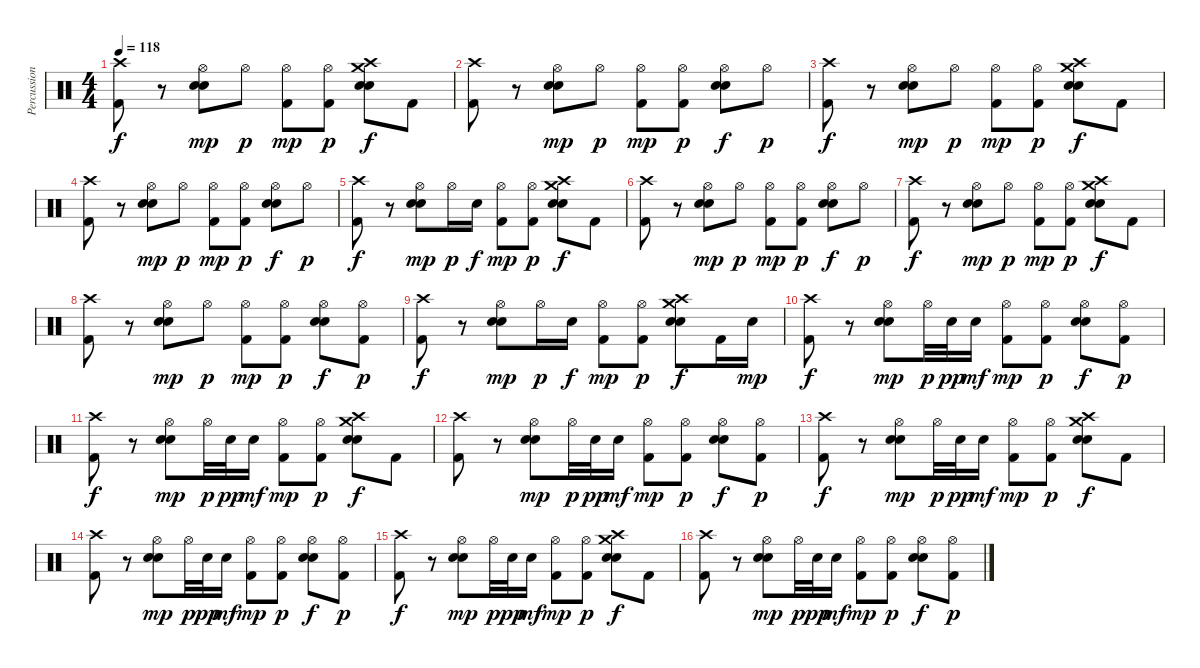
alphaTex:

\track ("Percussion" "Percussion") {instrument percussion}
\staff
\articulation defaults
\ts (4 4)
\tempo 118
\clef neutral
\ks c
("Crash high (hit)" "Kick (hit) 2").8{dy f} r.8 ("Hi-Hat (open)" "Electric Snare (hit)" "Snare (hit) 2").8{dy mp} "Hi-Hat (open)".8{dy p} ("Hi-Hat (open)" "Kick (hit) 2").8{dy mp} ("Hi-Hat (open)" "Kick (hit) 2").8{dy p} ("Crash medium (hit)" "Crash high (hit)" "Electric Snare (hit)" "Snare (hit) 2").8{dy f} "Kick (hit) 2".8 |
("Crash high (hit)" "Kick (hit) 2").8 r.8 ("Hi-Hat (open)" "Electric Snare (hit)" "Snare (hit) 2").8{dy mp} "Hi-Hat (open)".8{dy p} ("Hi-Hat (open)" "Kick (hit) 2").8{dy mp} ("Hi-Hat (open)" "Kick (hit) 2").8{dy p} ("Hi-Hat (open)" "Electric Snare (hit)" "Snare (hit) 2").8{dy f} "Hi-Hat (open)".8{dy p} |
("Crash high (hit)" "Kick (hit) 2").8{dy f} r.8 ("Hi-Hat (open)" "Electric Snare (hit)" "Snare (hit) 2").8{dy mp} "Hi-Hat (open)".8{dy p} ("Hi-Hat (open)" "Kick (hit) 2").8{dy mp} ("Hi-Hat (open)" "Kick (hit) 2").8{dy p} ("Crash medium (hit)" "Crash high (hit)" "Electric Snare (hit)" "Snare (hit) 2").8{dy f} "Kick (hit) 2".8 |
("Crash high (hit)" "Kick (hit) 2").8 r.8 ("Hi-Hat (open)" "Electric Snare (hit)" "Snare (hit) 2").8{dy mp} "Hi-Hat (open)".8{dy p} ("Hi-Hat (open)" "Kick (hit) 2").8{dy mp} ("Hi-Hat (open)" "Kick (hit) 2").8{dy p} ("Hi-Hat (open)" "Electric Snare (hit)" "Snare (hit) 2").8{dy f} "Hi-Hat (open)".8{dy p} |
("Crash high (hit)" "Kick (hit) 2").8{dy f} r.8 ("Hi-Hat (open)" "Electric Snare (hit)" "Snare (hit) 2").8{dy mp} "Hi-Hat (open)".16{dy p} "Electric Snare (hit)".16{dy f} ("Hi-Hat (open)" "Kick (hit) 2").8{dy mp} ("Hi-Hat (open)" "Kick (hit) 2").8{dy p} ("Crash medium (hit)" "Crash high (hit)" "Electric Snare (hit)" "Snare (hit) 2").8{dy f} "Kick (hit) 2".8 |
("Crash high (hit)" "Kick (hit) 2").8 r.8 ("Hi-Hat (open)" "Electric Snare (hit)" "Snare (hit) 2").8{dy mp} "Hi-Hat (open)".8{dy p} ("Hi-Hat (open)" "Kick (hit) 2").8{dy mp} ("Hi-Hat (open)" "Kick (hit) 2").8{dy p} ("Hi-Hat (open)" "Electric Snare (hit)" "Snare (hit) 2").8{dy f} "Hi-Hat (open)".8{dy p} |
("Crash high (hit)" "Kick (hit) 2").8{dy f} r.8 ("Hi-Hat (open)" "Electric Snare (hit)" "Snare (hit) 2").8{dy mp} "Hi-Hat (open)".8{dy p} ("Hi-Hat (open)" "Kick (hit) 2").8{dy mp} ("Hi-Hat (open)" "Kick (hit) 2").8{dy p} ("Crash medium (hit)" "Crash high (hit)" "Electric Snare (hit)" "Snare (hit) 2").8{dy f} "Kick (hit) 2".8 |
("Crash high (hit)" "Kick (hit) 2").8 r.8 ("Hi-Hat (open)" "Electric Snare (hit)" "Snare (hit) 2").8{dy mp} "Hi-Hat (open)".8{dy p} ("Hi-Hat (open)" "Kick (hit) 2").8{dy mp} ("Hi-Hat (open)" "Kick (hit) 2").8{dy p} ("Hi-Hat (open)" "Electric Snare (hit)" "Snare (hit) 2").8{dy f} ("Hi-Hat (open)" "Kick (hit) 2").8{dy p} |
("Crash high (hit)" "Kick (hit) 2").8{dy f} r.8 ("Hi-Hat (open)" "Electric Snare (hit)" "Snare (hit) 2").8{dy mp} "Hi-Hat (open)".16{dy p} "Electric Snare (hit)".16{dy f} ("Hi-Hat (open)" "Kick (hit) 2").8{dy mp} ("Hi-Hat (open)" "Kick (hit) 2").8{dy p} ("Crash medium (hit)" "Crash high (hit)" "Electric Snare (hit)" "Snare (hit) 2").8{dy f} "Kick (hit) 2".16 "Snare (hit) 2".16{dy mp} |
("Crash high (hit)" "Kick (hit) 2").8{dy f} r.8 ("Hi-Hat (open)" "Electric Snare (hit)" "Snare (hit) 2").8{dy mp} "Hi-Hat (open)".32{dy p} "Snare (hit) 2".32{dy pp} "Snare (hit) 2".16{dy mf} ("Hi-Hat (open)" "Kick (hit) 2").8{dy mp} ("Hi-Hat (open)" "Kick (hit) 2").8{dy p} ("Hi-Hat (open)" "Electric Snare (hit)" "Snare (hit) 2").8{dy f} ("Hi-Hat (open)" "Kick (hit) 2").8{dy p} |
("Crash high (hit)" "Kick (hit) 2").8{dy f} r.8 ("Hi-Hat (open)" "Electric Snare (hit)" "Snare (hit) 2").8{dy mp} "Hi-Hat (open)".32{dy p} "Snare (hit) 2".32{dy pp} "Snare (hit) 2".16{dy mf} ("Hi-Hat (open)" "Kick (hit) 2").8{dy mp} ("Hi-Hat (open)" "Kick (hit) 2").8{dy p} ("Crash medium (hit)" "Crash high (hit)" "Electric Snare (hit)" "Snare (hit) 2").8{dy f} "Kick (hit) 2".8 |
("Crash high (hit)" "Kick (hit) 2").8 r.8 ("Hi-Hat (open)" "Electric Snare (hit)" "Snare (hit) 2").8{dy mp} "Hi-Hat (open)".32{dy p} "Snare (hit) 2".32{dy pp} "Snare (hit) 2".16{dy mf} ("Hi-Hat (open)" "Kick (hit) 2").8{dy mp} ("Hi-Hat (open)" "Kick (hit) 2").8{dy p} ("Hi-Hat (open)" "Electric Snare (hit)" "Snare (hit) 2").8{dy f} ("Hi-Hat (open)" "Kick (hit) 2").8{dy p} |
("Crash high (hit)" "Kick (hit) 2").8{dy f} r.8 ("Hi-Hat (open)" "Electric Snare (hit)" "Snare (hit) 2").8{dy mp} "Hi-Hat (open)".32{dy p} "Snare (hit) 2".32{dy pp} "Snare (hit) 2".16{dy mf} ("Hi-Hat (open)" "Kick (hit) 2").8{dy mp} ("Hi-Hat (open)" "Kick (hit) 2").8{dy p} ("Crash medium (hit)" "Crash high (hit)" "Electric Snare (hit)" "Snare (hit) 2").8{dy f} "Kick (hit) 2".8 |
("Crash high (hit)" "Kick (hit) 2").8 r.8 ("Hi-Hat (open)" "Electric Snare (hit)" "Snare (hit) 2").8{dy mp} "Hi-Hat (open)".32{dy p} "Snare (hit) 2".32{dy pp} "Snare (hit) 2".16{dy mf} ("Hi-Hat (open)" "Kick (hit) 2").8{dy mp} ("Hi-Hat (open)" "Kick (hit) 2").8{dy p} ("Hi-Hat (open)" "Electric Snare (hit)" "Snare (hit) 2").8{dy f} ("Hi-Hat (open)" "Kick (hit) 2").8{dy p} |
("Crash high (hit)" "Kick (hit) 2").8{dy f} r.8 ("Hi-Hat (open)" "Electric Snare (hit)" "Snare (hit) 2").8{dy mp} "Hi-Hat (open)".32{dy p} "Snare (hit) 2".32{dy pp} "Snare (hit) 2".16{dy mf} ("Hi-Hat (open)" "Kick (hit) 2").8{dy mp} ("Hi-Hat (open)" "Kick (hit) 2").8{dy p} ("Crash medium (hit)" "Crash high (hit)" "Electric Snare (hit)" "Snare (hit) 2").8{dy f} "Kick (hit) 2".8 |
("Crash high (hit)" "Kick (hit) 2").8 r.8 ("Hi-Hat (open)" "Electric Snare (hit)" "Snare (hit) 2").8{dy mp} "Hi-Hat (open)".32{dy p} "Snare (hit) 2".32{dy pp} "Snare (hit) 2".16{dy mf} ("Hi-Hat (open)" "Kick (hit) 2").8{dy mp} ("Hi-Hat (open)" "Kick (hit) 2").8{dy p} ("Hi-Hat (open)" "Electric Snare (hit)" "Snare (hit) 2").8{dy f} ("Hi-Hat (open)" "Kick (hit) 2").8{dy p}
